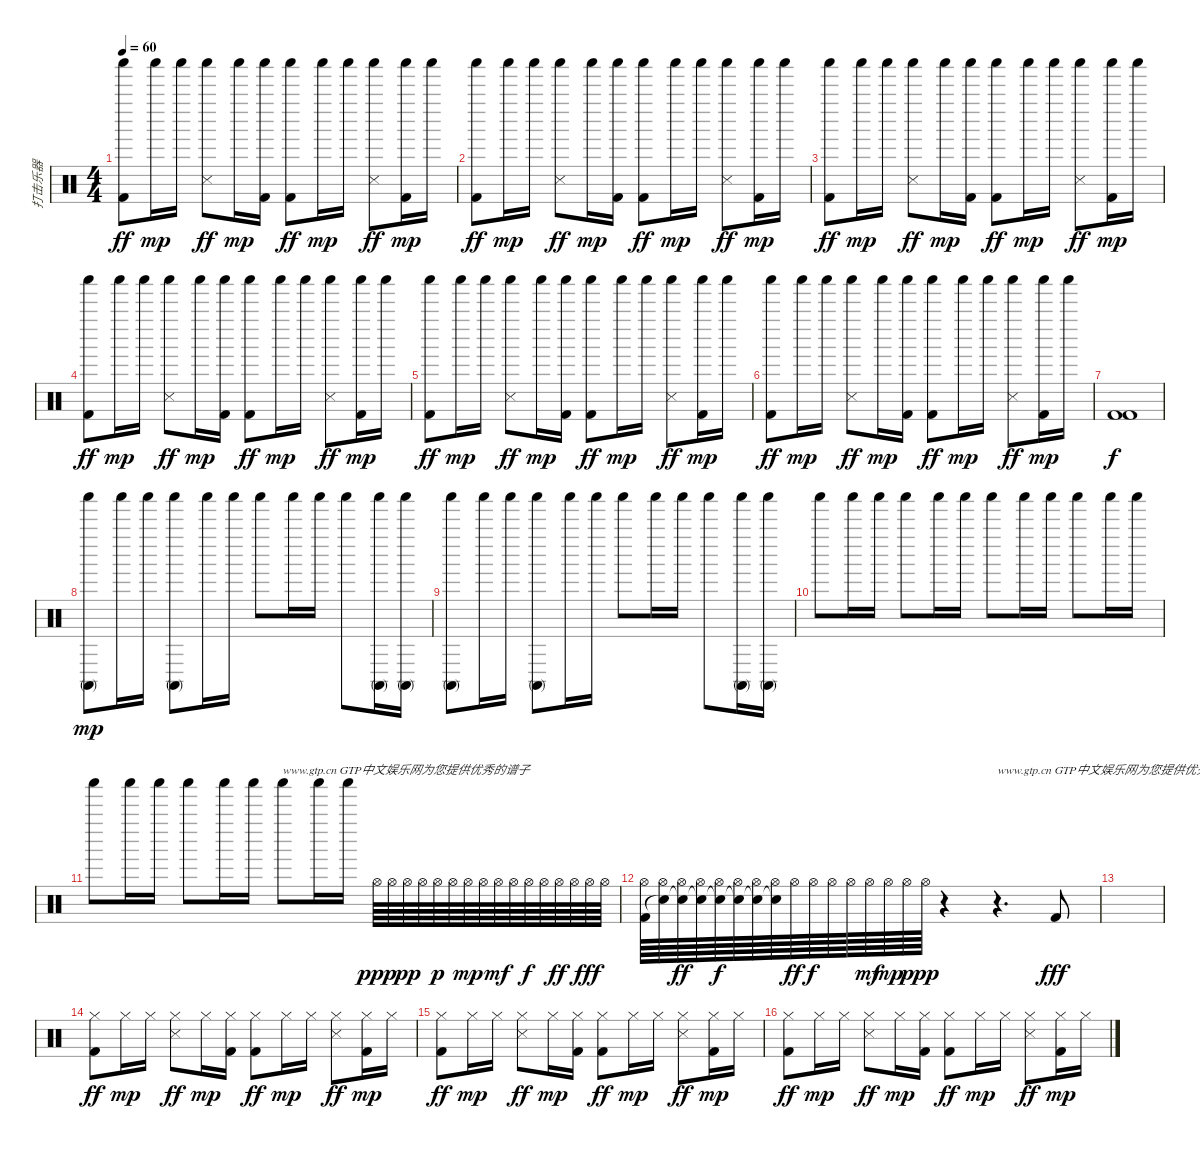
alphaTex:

\track ("打击乐器" "打击乐器") {instrument percussion}
\staff {score}
\articulation defaults
\ts (4 4)
\tempo 60
\clef neutral
\ks c
("Shaker (hit)" "Kick (hit) 2").8{dy ff} "Shaker (hit)".16{dy mp} "Shaker (hit)".16 ("Shaker (hit)" "Snare (side stick) 3").8{dy ff} "Shaker (hit)".16{dy mp} ("Shaker (hit)" "Kick (hit) 2").16 ("Shaker (hit)" "Kick (hit) 2").8{dy ff} "Shaker (hit)".16{dy mp} "Shaker (hit)".16 ("Shaker (hit)" "Snare (side stick) 3").8{dy ff} ("Shaker (hit)" "Kick (hit) 2").16{dy mp} "Shaker (hit)".16 |
("Shaker (hit)" "Kick (hit) 2").8{dy ff} "Shaker (hit)".16{dy mp} "Shaker (hit)".16 ("Shaker (hit)" "Snare (side stick) 3").8{dy ff} "Shaker (hit)".16{dy mp} ("Shaker (hit)" "Kick (hit) 2").16 ("Shaker (hit)" "Kick (hit) 2").8{dy ff} "Shaker (hit)".16{dy mp} "Shaker (hit)".16 ("Shaker (hit)" "Snare (side stick) 3").8{dy ff} ("Shaker (hit)" "Kick (hit) 2").16{dy mp} "Shaker (hit)".16 |
("Shaker (hit)" "Kick (hit) 2").8{dy ff} "Shaker (hit)".16{dy mp} "Shaker (hit)".16 ("Shaker (hit)" "Snare (side stick) 3").8{dy ff} "Shaker (hit)".16{dy mp} ("Shaker (hit)" "Kick (hit) 2").16 ("Shaker (hit)" "Kick (hit) 2").8{dy ff} "Shaker (hit)".16{dy mp} "Shaker (hit)".16 ("Shaker (hit)" "Snare (side stick) 3").8{dy ff} ("Shaker (hit)" "Kick (hit) 2").16{dy mp} "Shaker (hit)".16 |
("Shaker (hit)" "Kick (hit) 2").8{dy ff} "Shaker (hit)".16{dy mp} "Shaker (hit)".16 ("Shaker (hit)" "Snare (side stick) 3").8{dy ff} "Shaker (hit)".16{dy mp} ("Shaker (hit)" "Kick (hit) 2").16 ("Shaker (hit)" "Kick (hit) 2").8{dy ff} "Shaker (hit)".16{dy mp} "Shaker (hit)".16 ("Shaker (hit)" "Snare (side stick) 3").8{dy ff} ("Shaker (hit)" "Kick (hit) 2").16{dy mp} "Shaker (hit)".16 |
("Shaker (hit)" "Kick (hit) 2").8{dy ff} "Shaker (hit)".16{dy mp} "Shaker (hit)".16 ("Shaker (hit)" "Snare (side stick) 3").8{dy ff} "Shaker (hit)".16{dy mp} ("Shaker (hit)" "Kick (hit) 2").16 ("Shaker (hit)" "Kick (hit) 2").8{dy ff} "Shaker (hit)".16{dy mp} "Shaker (hit)".16 ("Shaker (hit)" "Snare (side stick) 3").8{dy ff} ("Shaker (hit)" "Kick (hit) 2").16{dy mp} "Shaker (hit)".16 |
("Shaker (hit)" "Kick (hit) 2").8{dy ff} "Shaker (hit)".16{dy mp} "Shaker (hit)".16 ("Shaker (hit)" "Snare (side stick) 3").8{dy ff} "Shaker (hit)".16{dy mp} ("Shaker (hit)" "Kick (hit) 2").16 ("Shaker (hit)" "Kick (hit) 2").8{dy ff} "Shaker (hit)".16{dy mp} "Shaker (hit)".16 ("Shaker (hit)" "Snare (side stick) 3").8{dy ff} ("Shaker (hit)" "Kick (hit) 2").16{dy mp} "Shaker (hit)".16 |
("Kick (hit) 2" "Kick (hit) 2").1{dy f} |
("Shaker (hit)" "Conga high (mute)").8{dy mp} "Shaker (hit)".16 "Shaker (hit)".16 ("Shaker (hit)" "Conga high (mute)").8 "Shaker (hit)".16 "Shaker (hit)".16 "Shaker (hit)".8 "Shaker (hit)".16 "Shaker (hit)".16 "Shaker (hit)".8 ("Shaker (hit)" "Conga high (mute)").16 ("Shaker (hit)" "Conga high (mute)").16 |
("Shaker (hit)" "Conga high (mute)").8 "Shaker (hit)".16 "Shaker (hit)".16 ("Shaker (hit)" "Conga high (mute)").8 "Shaker (hit)".16 "Shaker (hit)".16 "Shaker (hit)".8 "Shaker (hit)".16 "Shaker (hit)".16 "Shaker (hit)".8 ("Shaker (hit)" "Conga high (mute)").16 ("Shaker (hit)" "Conga high (mute)").16 |
"Shaker (hit)".8 "Shaker (hit)".16 "Shaker (hit)".16 "Shaker (hit)".8 "Shaker (hit)".16 "Shaker (hit)".16 "Shaker (hit)".8 "Shaker (hit)".16 "Shaker (hit)".16 "Shaker (hit)".8 "Shaker (hit)".16 "Shaker (hit)".16 |
"Shaker (hit)".8 "Shaker (hit)".16 "Shaker (hit)".16 "Shaker (hit)".8 "Shaker (hit)".16 "Shaker (hit)".16 "Shaker (hit)".8{txt "www.gtp.cn GTP中文娱乐网为您提供优秀的谱子"} "Shaker (hit)".16 "Shaker (hit)".16 "Hi-Hat (open)".64{dy ppp} "Hi-Hat (open)".64 "Hi-Hat (open)".64{dy pp} "Hi-Hat (open)".64 "Hi-Hat (open)".64{dy p} "Hi-Hat (open)".64 "Hi-Hat (open)".64{dy mp} "Hi-Hat (open)".64 "Hi-Hat (open)".64{dy mf} "Hi-Hat (open)".64 "Hi-Hat (open)".64{dy f} "Hi-Hat (open)".64 "Hi-Hat (open)".64{dy ff} "Hi-Hat (open)".64 "Hi-Hat (open)".64{dy fff} "Hi-Hat (open)".64 |
("Kick (hit) 2" "Hi-Hat (open)").64 ("Snare (hit)"{t} "Hi-Hat (open)").64 ("Snare (hit)"{t} "Hi-Hat (open)").64{dy ff} ("Snare (hit)"{t} "Hi-Hat (open)").64 ("Snare (hit)"{t} "Hi-Hat (open)").64{dy f} ("Snare (hit)"{t} "Hi-Hat (open)").64 ("Snare (hit)"{t} "Hi-Hat (open)").64 ("Snare (hit)"{t} "Hi-Hat (open)").64 "Hi-Hat (open)".64{dy ff} "Hi-Hat (open)".64{dy f} "Hi-Hat (open)".64 "Hi-Hat (open)".64 "Hi-Hat (open)".64{dy mf} "Hi-Hat (open)".64{dy mp} "Hi-Hat (open)".64{dy p} "Hi-Hat (open)".64{dy pp} r.4 r.4{d txt "www.gtp.cn GTP中文娱乐网为您提供优秀的谱子"} "Kick (hit) 2".8{dy fff} |
|
("Hi-Hat (closed)" "Kick (hit) 2").8{dy ff volume 9} "Hi-Hat (closed)".16{dy mp} "Hi-Hat (closed)".16 ("Hi-Hat (closed)" "Snare (side stick) 3").8{dy ff} "Hi-Hat (closed)".16{dy mp} ("Hi-Hat (closed)" "Kick (hit) 2").16 ("Hi-Hat (closed)" "Kick (hit) 2").8{dy ff} "Hi-Hat (closed)".16{dy mp} "Hi-Hat (closed)".16 ("Hi-Hat (closed)" "Snare (side stick) 3").8{dy ff} ("Hi-Hat (closed)" "Kick (hit) 2").16{dy mp} "Hi-Hat (closed)".16 |
("Hi-Hat (closed)" "Kick (hit) 2").8{dy ff} "Hi-Hat (closed)".16{dy mp} "Hi-Hat (closed)".16 ("Hi-Hat (closed)" "Snare (side stick) 3").8{dy ff} "Hi-Hat (closed)".16{dy mp} ("Hi-Hat (closed)" "Kick (hit) 2").16 ("Hi-Hat (closed)" "Kick (hit) 2").8{dy ff} "Hi-Hat (closed)".16{dy mp} "Hi-Hat (closed)".16 ("Hi-Hat (closed)" "Snare (side stick) 3").8{dy ff} ("Hi-Hat (closed)" "Kick (hit) 2").16{dy mp} "Hi-Hat (closed)".16 |
("Hi-Hat (closed)" "Kick (hit) 2").8{dy ff} "Hi-Hat (closed)".16{dy mp} "Hi-Hat (closed)".16 ("Hi-Hat (closed)" "Snare (side stick) 3").8{dy ff} "Hi-Hat (closed)".16{dy mp} ("Hi-Hat (closed)" "Kick (hit) 2").16 ("Hi-Hat (closed)" "Kick (hit) 2").8{dy ff} "Hi-Hat (closed)".16{dy mp} "Hi-Hat (closed)".16 ("Hi-Hat (closed)" "Snare (side stick) 3").8{dy ff} ("Hi-Hat (closed)" "Kick (hit) 2").16{dy mp} "Hi-Hat (closed)".16
